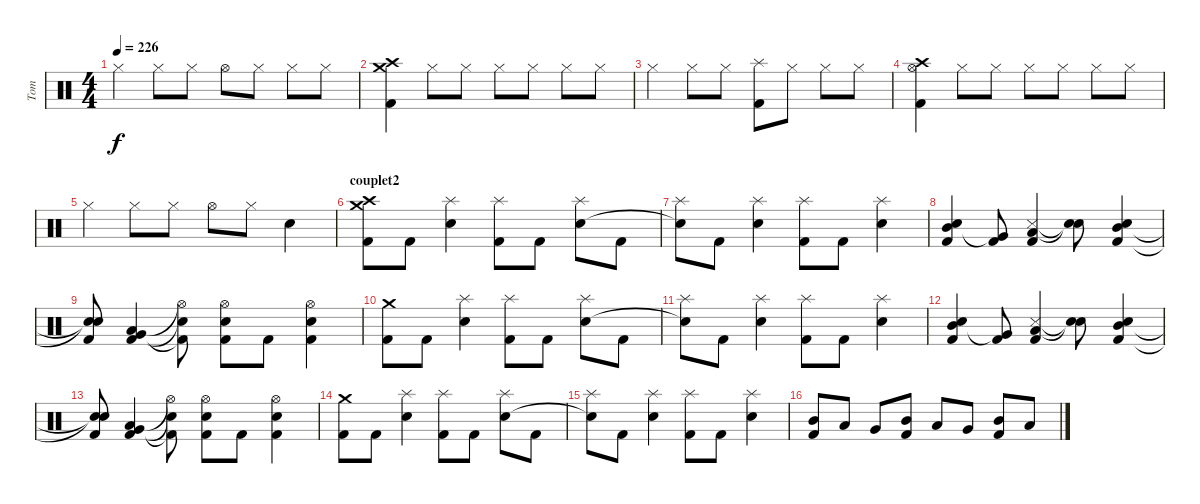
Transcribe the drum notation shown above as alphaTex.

\track ("Tom" "Tom") {instrument percussion}
\staff {score}
\articulation defaults
\ts (4 4)
\tempo 226
\clef neutral
\ks c "Hi-Hat (closed)".4{dy f} "Hi-Hat (closed)".8 "Hi-Hat (closed)".8 "Hi-Hat (open)".8 "Hi-Hat (closed)".8 "Hi-Hat (closed)".8 "Hi-Hat (closed)".8
|
("Crash high (hit)" "Crash medium (hit)" "Kick (hit) 2").4 "Hi-Hat (closed)".8 "Hi-Hat (closed)".8 "Hi-Hat (closed)".8 "Hi-Hat (closed)".8 "Hi-Hat (closed)".8 "Hi-Hat (closed)".8 |
"Hi-Hat (closed)".4 "Hi-Hat (closed)".8 "Hi-Hat (closed)".8 ("Splash (hit)" "Kick (hit) 2").8 "Hi-Hat (closed)".8 "Hi-Hat (closed)".8 "Hi-Hat (closed)".8 |
("Hi-Hat (open)" "Crash high (hit)" "Kick (hit) 2").4 "Hi-Hat (closed)".8 "Hi-Hat (closed)".8 "Hi-Hat (closed)".8 "Hi-Hat (closed)".8 "Hi-Hat (closed)".8 "Hi-Hat (closed)".8 |
"Hi-Hat (closed)".4 "Hi-Hat (closed)".8 "Hi-Hat (closed)".8 "Hi-Hat (open)".8 "Hi-Hat (closed)".8 "Electric Snare (hit)".4 |
\section ("" "couplet2")
("Crash high (hit)" "Crash medium (hit)" "Kick (hit) 2").8 "Kick (hit) 2".8 ("Splash (hit)" "Electric Snare (hit)").4 ("Splash (hit)" "Kick (hit) 2").8 "Kick (hit) 2".8 ("Splash (hit)" "Electric Snare (hit)").8 "Kick (hit) 2".8 |
("Splash (hit)" "Snare (hit)"{t}).8 "Kick (hit) 2".8 ("Splash (hit)" "Electric Snare (hit)").4 ("Splash (hit)" "Kick (hit) 2").8 "Kick (hit) 2".8 ("Splash (hit)" "Electric Snare (hit)").4 |
("Mid Tom (hit)" "Electric Snare (hit)" "Kick (hit) 2").4 ("Very Low Tom (hit)"{t} "Kick (hit) 2").8 ("Low Tom (hit)" "Snare (side stick) 3" "Kick (hit) 2").4 ("Snare (hit)"{t} "Snare (hit)"{t}).8 ("Mid Tom (hit)" "Electric Snare (hit)" "Kick (hit) 2").4 |
("Snare (hit)"{t} "Kick (hit) 2" "Snare (hit)"{t}).8 ("Very Low Tom (hit)" "Low Tom (hit)" "Kick (hit) 2").4 ("Kick (hit) 2"{t} "Hi-Hat (open)"{t} "Electric Snare (hit)"{t}).8 ("Kick (hit) 2" "Hi-Hat (open)" "Electric Snare (hit)").8 "Kick (hit) 2".8 ("Kick (hit) 2" "Hi-Hat (open)" "Electric Snare (hit)").4 |
("Crash medium (hit)" "Kick (hit) 2").8 "Kick (hit) 2".8 ("Splash (hit)" "Electric Snare (hit)").4 ("Splash (hit)" "Kick (hit) 2").8 "Kick (hit) 2".8 ("Splash (hit)" "Electric Snare (hit)").8 "Kick (hit) 2".8 |
("Splash (hit)" "Snare (hit)"{t}).8 "Kick (hit) 2".8 ("Splash (hit)" "Electric Snare (hit)").4 ("Splash (hit)" "Kick (hit) 2").8 "Kick (hit) 2".8 ("Splash (hit)" "Electric Snare (hit)").4 |
("Mid Tom (hit)" "Electric Snare (hit)" "Kick (hit) 2").4 ("Very Low Tom (hit)"{t} "Kick (hit) 2").8 ("Low Tom (hit)" "Snare (side stick) 3" "Kick (hit) 2").4 ("Snare (hit)"{t} "Snare (hit)"{t}).8 ("Mid Tom (hit)" "Electric Snare (hit)" "Kick (hit) 2").4 |
("Snare (hit)"{t} "Kick (hit) 2" "Snare (hit)"{t}).8 ("Very Low Tom (hit)" "Low Tom (hit)" "Kick (hit) 2").4 ("Kick (hit) 2"{t} "Hi-Hat (open)"{t} "Electric Snare (hit)"{t}).8 ("Kick (hit) 2" "Hi-Hat (open)" "Electric Snare (hit)").8 "Kick (hit) 2".8 ("Kick (hit) 2" "Hi-Hat (open)" "Electric Snare (hit)").4 |
("Crash medium (hit)" "Kick (hit) 2").8 "Kick (hit) 2".8 ("Splash (hit)" "Electric Snare (hit)").4 ("Splash (hit)" "Kick (hit) 2").8 "Kick (hit) 2".8 ("Splash (hit)" "Electric Snare (hit)").8 "Kick (hit) 2".8 |
("Splash (hit)" "Snare (hit)"{t}).8 "Kick (hit) 2".8 ("Splash (hit)" "Electric Snare (hit)").4 ("Splash (hit)" "Kick (hit) 2").8 "Kick (hit) 2".8 ("Splash (hit)" "Electric Snare (hit)").4 |
("Mid Tom (hit)" "Kick (hit) 2").8 "Low Tom (hit)".8 "Very Low Tom (hit)".8 ("Mid Tom (hit)" "Kick (hit) 2").8 "Low Tom (hit)".8 "Very Low Tom (hit)".8 ("Mid Tom (hit)" "Kick (hit) 2").8 "Low Tom (hit)".8
